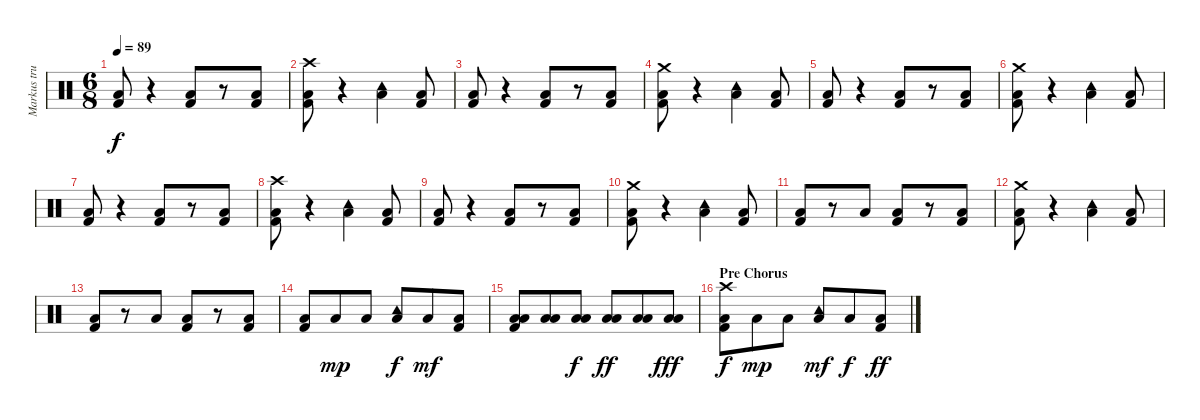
\track ("Markus trummor" "Markus tru") {instrument percussion}
\staff {score}
\articulation defaults
\ts (6 8)
\tempo 89
\clef neutral
\ks c
("Low Floor Tom (hit)" "Kick (hit) 2").8{dy f} r.4 ("Low Floor Tom (hit)" "Kick (hit) 2").8 r.8 ("Low Tom (hit)" "Kick (hit) 2").8 |
("Crash high (hit)" "Low Floor Tom (hit)" "Kick (hit) 2").8 r.4 ("Tambourine (hit)" "Low Tom (hit)").4 ("Low Tom (hit)" "Kick (hit) 2").8 |
("Low Floor Tom (hit)" "Kick (hit) 2").8 r.4 ("Low Floor Tom (hit)" "Kick (hit) 2").8 r.8 ("Low Tom (hit)" "Kick (hit) 2").8 |
("Crash medium (hit)" "Low Floor Tom (hit)" "Kick (hit) 2").8 r.4 ("Tambourine (hit)" "Low Tom (hit)").4 ("Low Tom (hit)" "Kick (hit) 2").8 |
("Low Floor Tom (hit)" "Kick (hit) 2").8 r.4 ("Low Floor Tom (hit)" "Kick (hit) 2").8 r.8 ("Low Tom (hit)" "Kick (hit) 2").8 |
("Crash medium (hit)" "Low Floor Tom (hit)" "Kick (hit) 2").8 r.4 ("Tambourine (hit)" "Low Tom (hit)").4 ("Low Tom (hit)" "Kick (hit) 2").8 |
("Low Floor Tom (hit)" "Kick (hit) 2").8 r.4 ("Low Floor Tom (hit)" "Kick (hit) 2").8 r.8 ("Low Tom (hit)" "Kick (hit) 2").8 |
("Crash high (hit)" "Low Floor Tom (hit)" "Kick (hit) 2").8 r.4 ("Tambourine (hit)" "Low Tom (hit)").4 ("Low Tom (hit)" "Kick (hit) 2").8 |
("Low Floor Tom (hit)" "Kick (hit) 2").8 r.4 ("Low Floor Tom (hit)" "Kick (hit) 2").8 r.8 ("Low Tom (hit)" "Kick (hit) 2").8 |
("Crash medium (hit)" "Low Floor Tom (hit)" "Kick (hit) 2").8 r.4 ("Tambourine (hit)" "Low Tom (hit)").4 ("Low Tom (hit)" "Kick (hit) 2").8 |
("Low Floor Tom (hit)" "Kick (hit) 2").8 r.8 "Low Floor Tom (hit)".8 ("Low Floor Tom (hit)" "Kick (hit) 2").8 r.8 ("Low Tom (hit)" "Kick (hit) 2").8 |
("Crash medium (hit)" "Low Floor Tom (hit)" "Kick (hit) 2").8 r.4 ("Tambourine (hit)" "Low Tom (hit)").4 ("Low Tom (hit)" "Kick (hit) 2").8 |
("Low Floor Tom (hit)" "Kick (hit) 2").8 r.8 "Low Floor Tom (hit)".8 ("Low Floor Tom (hit)" "Kick (hit) 2").8 r.8 ("Low Tom (hit)" "Kick (hit) 2").8 |
("Low Floor Tom (hit)" "Kick (hit) 2").8 "Low Floor Tom (hit)".8{dy mp} "Low Floor Tom (hit)".8 ("Tambourine (hit)" "Low Floor Tom (hit)").8{dy f} "Low Floor Tom (hit)".8{dy mf} ("Low Floor Tom (hit)" "Kick (hit) 2").8 |
("Low Tom (hit)" "Low Floor Tom (hit)" "Kick (hit) 2").8 ("Low Tom (hit)" "Low Floor Tom (hit)").8 ("Low Tom (hit)" "Low Floor Tom (hit)").8{dy f} ("Low Tom (hit)" "Low Floor Tom (hit)").8{dy ff} ("Low Tom (hit)" "Low Floor Tom (hit)").8 ("Low Tom (hit)" "Low Floor Tom (hit)").8{dy fff} |
\section ("" "Pre Chorus")
("Crash high (hit)" "Low Floor Tom (hit)" "Kick (hit) 2").8{dy f} "Low Floor Tom (hit)".8{dy mp} "Low Floor Tom (hit)".8 ("Tambourine (hit)" "Low Floor Tom (hit)").8{dy mf} "Low Floor Tom (hit)".8{dy f} ("Low Floor Tom (hit)" "Kick (hit) 2").8{dy ff}
